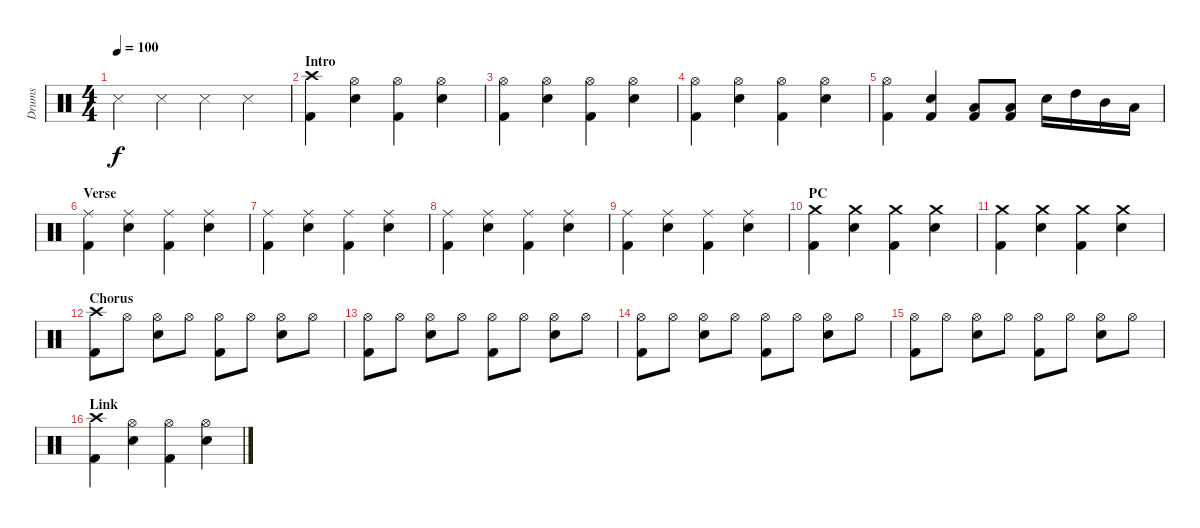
\track ("Drums" "Drums") {instrument percussion}
\staff {score}
\articulation defaults
\ts (4 4)
\tempo 100
\clef neutral
\ks c "Snare (side stick) 3".4{dy f} "Snare (side stick) 3".4 "Snare (side stick) 3".4 "Snare (side stick) 3".4
|
\section ("" "Intro")
("Crash high (hit)" "Kick (hit) 2").4 ("Hi-Hat (open)" "Electric Snare (hit)").4 ("Hi-Hat (open)" "Kick (hit) 2").4 ("Hi-Hat (open)" "Electric Snare (hit)").4 |
("Hi-Hat (open)" "Kick (hit) 2").4 ("Hi-Hat (open)" "Electric Snare (hit)").4 ("Hi-Hat (open)" "Kick (hit) 2").4 ("Hi-Hat (open)" "Electric Snare (hit)").4 |
("Hi-Hat (open)" "Kick (hit) 2").4 ("Hi-Hat (open)" "Electric Snare (hit)").4 ("Hi-Hat (open)" "Kick (hit) 2").4 ("Hi-Hat (open)" "Electric Snare (hit)").4 |
("Hi-Hat (open)" "Kick (hit) 2").4 ("Kick (hit) 2" "Electric Snare (hit)").4 ("Low Floor Tom (hit)" "Kick (hit) 2").8 ("Low Floor Tom (hit)" "Kick (hit) 2").8 "Electric Snare (hit)".16 "High Tom (hit)".16 "Mid Tom (hit)".16 "Low Tom (hit)".16 |
\section ("" "Verse")
("Ride (middle)" "Kick (hit) 2").4 ("Ride (middle)" "Electric Snare (hit)").4 ("Ride (middle)" "Kick (hit) 2").4 ("Ride (middle)" "Electric Snare (hit)").4 |
("Ride (middle)" "Kick (hit) 2").4 ("Ride (middle)" "Electric Snare (hit)").4 ("Ride (middle)" "Kick (hit) 2").4 ("Ride (middle)" "Electric Snare (hit)").4 |
("Ride (middle)" "Kick (hit) 2").4 ("Ride (middle)" "Electric Snare (hit)").4 ("Ride (middle)" "Kick (hit) 2").4 ("Ride (middle)" "Electric Snare (hit)").4 |
("Ride (middle)" "Kick (hit) 2").4 ("Ride (middle)" "Electric Snare (hit)").4 ("Ride (middle)" "Kick (hit) 2").4 ("Ride (middle)" "Electric Snare (hit)").4 |
\section ("" "PC")
("Crash medium (hit)" "Kick (hit) 2").4 ("Crash medium (hit)" "Electric Snare (hit)").4 ("Crash medium (hit)" "Kick (hit) 2").4 ("Crash medium (hit)" "Electric Snare (hit)").4 |
("Crash medium (hit)" "Kick (hit) 2").4 ("Crash medium (hit)" "Electric Snare (hit)").4 ("Crash medium (hit)" "Kick (hit) 2").4 ("Crash medium (hit)" "Electric Snare (hit)").4 |
\section ("" "Chorus")
("Crash high (hit)" "Kick (hit) 2").8 "Hi-Hat (open)".8 ("Hi-Hat (open)" "Electric Snare (hit)").8 "Hi-Hat (open)".8 ("Hi-Hat (open)" "Kick (hit) 2").8 "Hi-Hat (open)".8 ("Hi-Hat (open)" "Electric Snare (hit)").8 "Hi-Hat (open)".8 |
("Hi-Hat (open)" "Kick (hit) 2").8 "Hi-Hat (open)".8 ("Hi-Hat (open)" "Electric Snare (hit)").8 "Hi-Hat (open)".8 ("Hi-Hat (open)" "Kick (hit) 2").8 "Hi-Hat (open)".8 ("Hi-Hat (open)" "Electric Snare (hit)").8 "Hi-Hat (open)".8 |
("Hi-Hat (open)" "Kick (hit) 2").8 "Hi-Hat (open)".8 ("Hi-Hat (open)" "Electric Snare (hit)").8 "Hi-Hat (open)".8 ("Hi-Hat (open)" "Kick (hit) 2").8 "Hi-Hat (open)".8 ("Hi-Hat (open)" "Electric Snare (hit)").8 "Hi-Hat (open)".8 |
("Hi-Hat (open)" "Kick (hit) 2").8 "Hi-Hat (open)".8 ("Hi-Hat (open)" "Electric Snare (hit)").8 "Hi-Hat (open)".8 ("Hi-Hat (open)" "Kick (hit) 2").8 "Hi-Hat (open)".8 ("Hi-Hat (open)" "Electric Snare (hit)").8 "Hi-Hat (open)".8 |
\section ("" "Link")
("Crash high (hit)" "Kick (hit) 2").4 ("Hi-Hat (open)" "Electric Snare (hit)").4 ("Hi-Hat (open)" "Kick (hit) 2").4 ("Hi-Hat (open)" "Electric Snare (hit)").4
